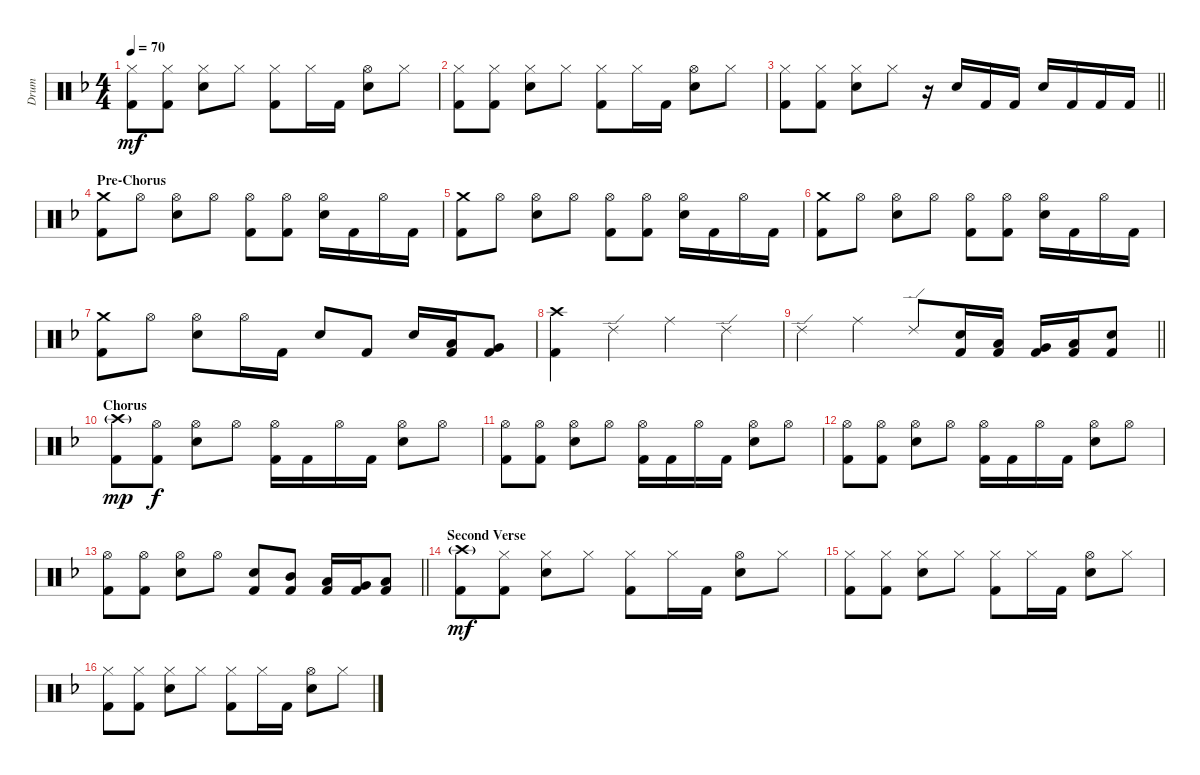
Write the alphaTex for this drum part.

\track ("Drum" "Drum") {instrument percussion}
\staff {score}
\articulation defaults
\ts (4 4)
\tempo 70
\clef neutral
\ks f
("Hi-Hat (closed)" "Kick (hit) 2").8{dy mf} ("Hi-Hat (closed)" "Kick (hit) 2").8 ("Hi-Hat (closed)" "Electric Snare (hit)").8 "Hi-Hat (closed)".8 ("Hi-Hat (closed)" "Kick (hit) 2").8 "Hi-Hat (closed)".16 "Kick (hit) 2".16 ("Hi-Hat (open)" "Electric Snare (hit)").8 "Hi-Hat (closed)".8 |
("Hi-Hat (closed)" "Kick (hit) 2").8 ("Hi-Hat (closed)" "Kick (hit) 2").8 ("Hi-Hat (closed)" "Electric Snare (hit)").8 "Hi-Hat (closed)".8 ("Hi-Hat (closed)" "Kick (hit) 2").8 "Hi-Hat (closed)".16 "Kick (hit) 2".16 ("Hi-Hat (open)" "Electric Snare (hit)").8 "Hi-Hat (closed)".8 |
\barLineRight lightlight
("Hi-Hat (closed)" "Kick (hit) 2").8 ("Hi-Hat (closed)" "Kick (hit) 2").8 ("Hi-Hat (closed)" "Electric Snare (hit)").8 "Hi-Hat (closed)".8 r.16 "Electric Snare (hit)".16 "Kick (hit) 2".16 "Kick (hit) 2".16 "Electric Snare (hit)".16 "Kick (hit) 2".16 "Kick (hit) 2".16 "Kick (hit) 2".16 |
\section ("" "Pre-Chorus")
("Crash medium (hit)" "Kick (hit) 2").8 "Hi-Hat (open)".8 ("Hi-Hat (open)" "Electric Snare (hit)").8 "Hi-Hat (open)".8 ("Hi-Hat (open)" "Kick (hit) 2").8 ("Hi-Hat (open)" "Kick (hit) 2").8 ("Hi-Hat (open)" "Electric Snare (hit)").16 "Kick (hit) 2".16 "Hi-Hat (open)".16 "Kick (hit) 2".16 |
("Crash medium (hit)" "Kick (hit) 2").8 "Hi-Hat (open)".8 ("Hi-Hat (open)" "Electric Snare (hit)").8 "Hi-Hat (open)".8 ("Hi-Hat (open)" "Kick (hit) 2").8 ("Hi-Hat (open)" "Kick (hit) 2").8 ("Hi-Hat (open)" "Electric Snare (hit)").16 "Kick (hit) 2".16 "Hi-Hat (open)".16 "Kick (hit) 2".16 |
("Crash medium (hit)" "Kick (hit) 2").8 "Hi-Hat (open)".8 ("Hi-Hat (open)" "Electric Snare (hit)").8 "Hi-Hat (open)".8 ("Hi-Hat (open)" "Kick (hit) 2").8 ("Hi-Hat (open)" "Kick (hit) 2").8 ("Hi-Hat (open)" "Electric Snare (hit)").16 "Kick (hit) 2".16 "Hi-Hat (open)".16 "Kick (hit) 2".16 |
("Crash medium (hit)" "Kick (hit) 2").8 "Hi-Hat (open)".8 ("Hi-Hat (open)" "Electric Snare (hit)").8 "Hi-Hat (open)".16 "Kick (hit) 2".16 "Electric Snare (hit)".8 "Kick (hit) 2".8 "Electric Snare (hit)".16 ("Low Tom (hit)" "Kick (hit) 2").16 ("Very Low Tom (hit)" "Kick (hit) 2").8 |
("Crash high (hit)" "Kick (hit) 2").4 "Ride (edge) 2".4 "Ride (middle)".4 "Ride (edge) 2".4 |
\barLineRight lightlight "Ride (edge) 2".4 "Ride (middle)".4 "Ride (edge) 2".8
("Electric Snare (hit)" "Kick (hit) 2").16 ("Low Tom (hit)" "Kick (hit) 2").16 ("Very Low Tom (hit)" "Kick (hit) 2").16 ("Low Floor Tom (hit)" "Kick (hit) 2").16 ("Electric Snare (hit)" "Kick (hit) 2").8 |
\section ("" "Chorus")
("Crash high (hit)"{g} "Kick (hit) 2").8{dy mp} ("Hi-Hat (open)" "Kick (hit) 2").8{dy f} ("Hi-Hat (open)" "Electric Snare (hit)").8 "Hi-Hat (open)".8 ("Hi-Hat (open)" "Kick (hit) 2").16 "Kick (hit) 2".16 "Hi-Hat (open)".16 "Kick (hit) 2".16 ("Hi-Hat (open)" "Electric Snare (hit)").8 "Hi-Hat (open)".8 |
("Hi-Hat (open)" "Kick (hit) 2").8 ("Hi-Hat (open)" "Kick (hit) 2").8 ("Hi-Hat (open)" "Electric Snare (hit)").8 "Hi-Hat (open)".8 ("Hi-Hat (open)" "Kick (hit) 2").16 "Kick (hit) 2".16 "Hi-Hat (open)".16 "Kick (hit) 2".16 ("Hi-Hat (open)" "Electric Snare (hit)").8 "Hi-Hat (open)".8 |
("Hi-Hat (open)" "Kick (hit) 2").8 ("Hi-Hat (open)" "Kick (hit) 2").8 ("Hi-Hat (open)" "Electric Snare (hit)").8 "Hi-Hat (open)".8 ("Hi-Hat (open)" "Kick (hit) 2").16 "Kick (hit) 2".16 "Hi-Hat (open)".16 "Kick (hit) 2".16 ("Hi-Hat (open)" "Electric Snare (hit)").8 "Hi-Hat (open)".8 |
\barLineRight lightlight
("Hi-Hat (open)" "Kick (hit) 2").8 ("Hi-Hat (open)" "Kick (hit) 2").8 ("Hi-Hat (open)" "Electric Snare (hit)").8 "Hi-Hat (open)".8 ("Electric Snare (hit)" "Kick (hit) 2").8 ("Mid Tom (hit)" "Kick (hit) 2").8 ("Low Tom (hit)" "Kick (hit) 2").16 ("Very Low Tom (hit)" "Kick (hit) 2").16 ("Low Floor Tom (hit)" "Kick (hit) 2").8 |
\section ("" "Second Verse")
("Crash high (hit)"{g} "Kick (hit) 2").8{dy mf} ("Hi-Hat (closed)" "Kick (hit) 2").8 ("Hi-Hat (closed)" "Electric Snare (hit)").8 "Hi-Hat (closed)".8 ("Hi-Hat (closed)" "Kick (hit) 2").8 "Hi-Hat (closed)".16 "Kick (hit) 2".16 ("Hi-Hat (open)" "Electric Snare (hit)").8 "Hi-Hat (closed)".8 |
("Hi-Hat (closed)" "Kick (hit) 2").8 ("Hi-Hat (closed)" "Kick (hit) 2").8 ("Hi-Hat (closed)" "Electric Snare (hit)").8 "Hi-Hat (closed)".8 ("Hi-Hat (closed)" "Kick (hit) 2").8 "Hi-Hat (closed)".16 "Kick (hit) 2".16 ("Hi-Hat (open)" "Electric Snare (hit)").8 "Hi-Hat (closed)".8 |
("Hi-Hat (closed)" "Kick (hit) 2").8 ("Hi-Hat (closed)" "Kick (hit) 2").8 ("Hi-Hat (closed)" "Electric Snare (hit)").8 "Hi-Hat (closed)".8 ("Hi-Hat (closed)" "Kick (hit) 2").8 "Hi-Hat (closed)".16 "Kick (hit) 2".16 ("Hi-Hat (open)" "Electric Snare (hit)").8 "Hi-Hat (closed)".8
